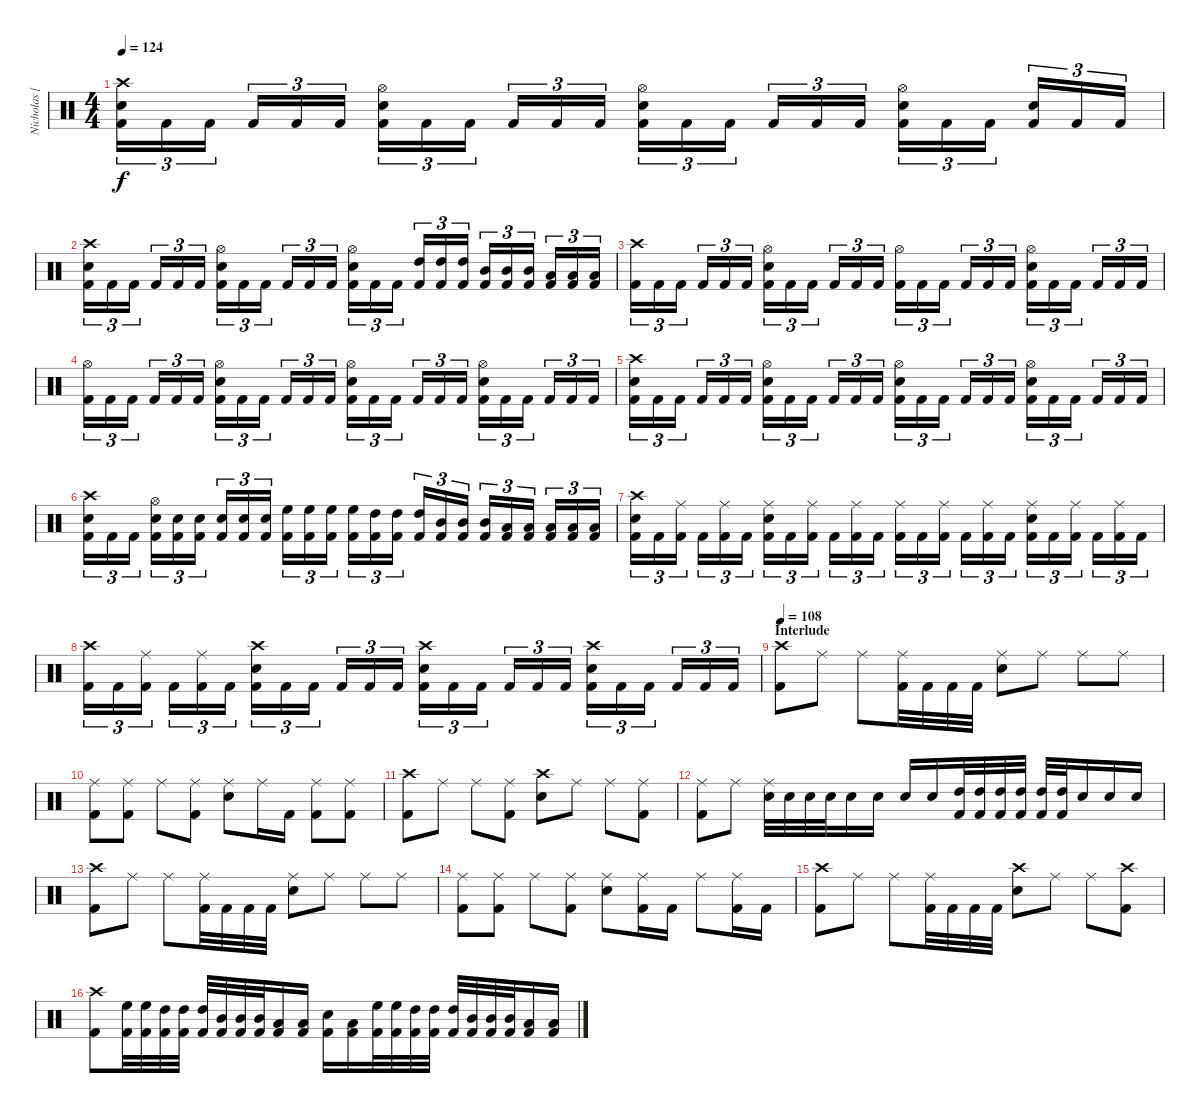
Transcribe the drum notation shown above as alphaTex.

\track ("Nicholas [Percussion]" "Nicholas [") {instrument percussion}
\staff {score}
\articulation defaults
\ts (4 4)
\tempo 124
\clef neutral
\ks c
("Kick (hit) 2" "Snare (hit) 2" "Crash high (hit)").16{tu (3 2) dy f} "Kick (hit) 2".16{tu (3 2)} "Kick (hit) 2".16{tu (3 2)} "Kick (hit) 2".16{tu (3 2)} "Kick (hit) 2".16{tu (3 2)} "Kick (hit) 2".16{tu (3 2)} ("Kick (hit) 2" "Snare (hit) 2" "Hi-Hat (open)").16{tu (3 2)} "Kick (hit) 2".16{tu (3 2)} "Kick (hit) 2".16{tu (3 2)} "Kick (hit) 2".16{tu (3 2)} "Kick (hit) 2".16{tu (3 2)} "Kick (hit) 2".16{tu (3 2)} ("Kick (hit) 2" "Snare (hit) 2" "Hi-Hat (open)").16{tu (3 2)} "Kick (hit) 2".16{tu (3 2)} "Kick (hit) 2".16{tu (3 2)} "Kick (hit) 2".16{tu (3 2)} "Kick (hit) 2".16{tu (3 2)} "Kick (hit) 2".16{tu (3 2)} ("Kick (hit) 2" "Snare (hit) 2" "Hi-Hat (open)").16{tu (3 2)} "Kick (hit) 2".16{tu (3 2)} "Kick (hit) 2".16{tu (3 2)} ("Kick (hit) 2" "Snare (hit) 2").16{tu (3 2)} "Kick (hit) 2".16{tu (3 2)} "Kick (hit) 2".16{tu (3 2)} |
("Kick (hit) 2" "Snare (hit) 2" "Crash high (hit)").16{tu (3 2)} "Kick (hit) 2".16{tu (3 2)} "Kick (hit) 2".16{tu (3 2)} "Kick (hit) 2".16{tu (3 2)} "Kick (hit) 2".16{tu (3 2)} "Kick (hit) 2".16{tu (3 2)} ("Kick (hit) 2" "Snare (hit) 2" "Hi-Hat (open)").16{tu (3 2)} "Kick (hit) 2".16{tu (3 2)} "Kick (hit) 2".16{tu (3 2)} "Kick (hit) 2".16{tu (3 2)} "Kick (hit) 2".16{tu (3 2)} "Kick (hit) 2".16{tu (3 2)} ("Kick (hit) 2" "Snare (hit) 2" "Hi-Hat (open)").16{tu (3 2)} "Kick (hit) 2".16{tu (3 2)} "Kick (hit) 2".16{tu (3 2)} ("Kick (hit) 2" "High Tom (hit)").16{tu (3 2)} ("Kick (hit) 2" "High Tom (hit)").16{tu (3 2)} ("Kick (hit) 2" "High Tom (hit)").16{tu (3 2)} ("Kick (hit) 2" "Mid Tom (hit)").16{tu (3 2)} ("Kick (hit) 2" "Mid Tom (hit)").16{tu (3 2)} ("Kick (hit) 2" "Mid Tom (hit)").16{tu (3 2)} ("Kick (hit) 2" "Low Tom (hit)").16{tu (3 2)} ("Kick (hit) 2" "Low Tom (hit)").16{tu (3 2)} ("Kick (hit) 2" "Low Tom (hit)").16{tu (3 2)} |
("Kick (hit) 2" "Crash high (hit)").16{tu (3 2)} "Kick (hit) 2".16{tu (3 2)} "Kick (hit) 2".16{tu (3 2)} "Kick (hit) 2".16{tu (3 2)} "Kick (hit) 2".16{tu (3 2)} "Kick (hit) 2".16{tu (3 2)} ("Kick (hit) 2" "Snare (hit) 2" "Hi-Hat (open)").16{tu (3 2)} "Kick (hit) 2".16{tu (3 2)} "Kick (hit) 2".16{tu (3 2)} "Kick (hit) 2".16{tu (3 2)} "Kick (hit) 2".16{tu (3 2)} "Kick (hit) 2".16{tu (3 2)} ("Kick (hit) 2" "Hi-Hat (open)").16{tu (3 2)} "Kick (hit) 2".16{tu (3 2)} "Kick (hit) 2".16{tu (3 2)} "Kick (hit) 2".16{tu (3 2)} "Kick (hit) 2".16{tu (3 2)} "Kick (hit) 2".16{tu (3 2)} ("Kick (hit) 2" "Snare (hit) 2" "Hi-Hat (open)").16{tu (3 2)} "Kick (hit) 2".16{tu (3 2)} "Kick (hit) 2".16{tu (3 2)} "Kick (hit) 2".16{tu (3 2)} "Kick (hit) 2".16{tu (3 2)} "Kick (hit) 2".16{tu (3 2)} |
("Kick (hit) 2" "Hi-Hat (open)").16{tu (3 2)} "Kick (hit) 2".16{tu (3 2)} "Kick (hit) 2".16{tu (3 2)} "Kick (hit) 2".16{tu (3 2)} "Kick (hit) 2".16{tu (3 2)} "Kick (hit) 2".16{tu (3 2)} ("Kick (hit) 2" "Snare (hit) 2" "Hi-Hat (open)").16{tu (3 2)} "Kick (hit) 2".16{tu (3 2)} "Kick (hit) 2".16{tu (3 2)} "Kick (hit) 2".16{tu (3 2)} "Kick (hit) 2".16{tu (3 2)} "Kick (hit) 2".16{tu (3 2)} ("Kick (hit) 2" "Snare (hit) 2" "Hi-Hat (open)").16{tu (3 2)} "Kick (hit) 2".16{tu (3 2)} "Kick (hit) 2".16{tu (3 2)} "Kick (hit) 2".16{tu (3 2)} "Kick (hit) 2".16{tu (3 2)} "Kick (hit) 2".16{tu (3 2)} ("Kick (hit) 2" "Snare (hit) 2" "Hi-Hat (open)").16{tu (3 2)} "Kick (hit) 2".16{tu (3 2)} "Kick (hit) 2".16{tu (3 2)} "Kick (hit) 2".16{tu (3 2)} "Kick (hit) 2".16{tu (3 2)} "Kick (hit) 2".16{tu (3 2)} |
("Kick (hit) 2" "Snare (hit) 2" "Crash high (hit)").16{tu (3 2)} "Kick (hit) 2".16{tu (3 2)} "Kick (hit) 2".16{tu (3 2)} "Kick (hit) 2".16{tu (3 2)} "Kick (hit) 2".16{tu (3 2)} "Kick (hit) 2".16{tu (3 2)} ("Kick (hit) 2" "Snare (hit) 2" "Hi-Hat (open)").16{tu (3 2)} "Kick (hit) 2".16{tu (3 2)} "Kick (hit) 2".16{tu (3 2)} "Kick (hit) 2".16{tu (3 2)} "Kick (hit) 2".16{tu (3 2)} "Kick (hit) 2".16{tu (3 2)} ("Kick (hit) 2" "Snare (hit) 2" "Hi-Hat (open)").16{tu (3 2)} "Kick (hit) 2".16{tu (3 2)} "Kick (hit) 2".16{tu (3 2)} "Kick (hit) 2".16{tu (3 2)} "Kick (hit) 2".16{tu (3 2)} "Kick (hit) 2".16{tu (3 2)} ("Kick (hit) 2" "Snare (hit) 2" "Hi-Hat (open)").16{tu (3 2)} "Kick (hit) 2".16{tu (3 2)} "Kick (hit) 2".16{tu (3 2)} "Kick (hit) 2".16{tu (3 2)} "Kick (hit) 2".16{tu (3 2)} "Kick (hit) 2".16{tu (3 2)} |
("Kick (hit) 2" "Snare (hit) 2" "Crash high (hit)").16{tu (3 2)} "Kick (hit) 2".16{tu (3 2)} "Kick (hit) 2".16{tu (3 2)} ("Kick (hit) 2" "Snare (hit) 2" "Hi-Hat (open)").16{tu (3 2)} ("Kick (hit) 2" "Snare (hit) 2").16{tu (3 2)} ("Kick (hit) 2" "Snare (hit) 2").16{tu (3 2)} ("Kick (hit) 2" "Snare (hit) 2").16{tu (3 2)} ("Kick (hit) 2" "Snare (hit) 2").16{tu (3 2)} ("Kick (hit) 2" "Snare (hit) 2").16{tu (3 2)} ("Kick (hit) 2" "High Floor Tom (hit)").16{tu (3 2)} ("Kick (hit) 2" "High Floor Tom (hit)").16{tu (3 2)} ("Kick (hit) 2" "High Floor Tom (hit)").16{tu (3 2)} ("Kick (hit) 2" "High Floor Tom (hit)").16{tu (3 2)} ("Kick (hit) 2" "High Tom (hit)").16{tu (3 2)} ("Kick (hit) 2" "High Tom (hit)").16{tu (3 2)} ("Kick (hit) 2" "High Tom (hit)").16{tu (3 2)} ("Kick (hit) 2" "Mid Tom (hit)").16{tu (3 2)} ("Kick (hit) 2" "Mid Tom (hit)").16{tu (3 2)} ("Kick (hit) 2" "Mid Tom (hit)").16{tu (3 2)} ("Kick (hit) 2" "Low Tom (hit)").16{tu (3 2)} ("Kick (hit) 2" "Low Tom (hit)").16{tu (3 2)} ("Kick (hit) 2" "Low Tom (hit)").16{tu (3 2)} ("Kick (hit) 2" "Low Tom (hit)").16{tu (3 2)} ("Kick (hit) 2" "Low Tom (hit)").16{tu (3 2)} |
("Kick (hit) 2" "Snare (hit) 2" "Crash high (hit)").16{tu (3 2)} "Kick (hit) 2".16{tu (3 2)} ("Kick (hit) 2" "Ride (middle)").16{tu (3 2)} "Kick (hit) 2".16{tu (3 2)} ("Kick (hit) 2" "Ride (middle)").16{tu (3 2)} "Kick (hit) 2".16{tu (3 2)} ("Kick (hit) 2" "Snare (hit) 2" "Ride (middle)").16{tu (3 2)} "Kick (hit) 2".16{tu (3 2)} ("Kick (hit) 2" "Ride (middle)").16{tu (3 2)} "Kick (hit) 2".16{tu (3 2)} ("Kick (hit) 2" "Ride (middle)").16{tu (3 2)} "Kick (hit) 2".16{tu (3 2)} ("Kick (hit) 2" "Ride (middle)").16{tu (3 2)} "Kick (hit) 2".16{tu (3 2)} ("Kick (hit) 2" "Ride (middle)").16{tu (3 2)} "Kick (hit) 2".16{tu (3 2)} ("Kick (hit) 2" "Ride (middle)").16{tu (3 2)} "Kick (hit) 2".16{tu (3 2)} ("Kick (hit) 2" "Snare (hit) 2" "Ride (middle)").16{tu (3 2)} "Kick (hit) 2".16{tu (3 2)} ("Kick (hit) 2" "Ride (middle)").16{tu (3 2)} "Kick (hit) 2".16{tu (3 2)} ("Kick (hit) 2" "Ride (middle)").16{tu (3 2)} "Kick (hit) 2".16{tu (3 2)} |
("Kick (hit) 2" "Crash high (hit)").16{tu (3 2)} "Kick (hit) 2".16{tu (3 2)} ("Kick (hit) 2" "Ride (middle)").16{tu (3 2)} "Kick (hit) 2".16{tu (3 2)} ("Kick (hit) 2" "Ride (middle)").16{tu (3 2)} "Kick (hit) 2".16{tu (3 2)} ("Kick (hit) 2" "Snare (hit) 2" "Crash high (hit)").16{tu (3 2)} "Kick (hit) 2".16{tu (3 2)} "Kick (hit) 2".16{tu (3 2)} "Kick (hit) 2".16{tu (3 2)} "Kick (hit) 2".16{tu (3 2)} "Kick (hit) 2".16{tu (3 2)} ("Kick (hit) 2" "Snare (hit) 2" "Crash high (hit)").16{tu (3 2)} "Kick (hit) 2".16{tu (3 2)} "Kick (hit) 2".16{tu (3 2)} "Kick (hit) 2".16{tu (3 2)} "Kick (hit) 2".16{tu (3 2)} "Kick (hit) 2".16{tu (3 2)} ("Kick (hit) 2" "Snare (hit) 2" "Crash high (hit)").16{tu (3 2)} "Kick (hit) 2".16{tu (3 2)} "Kick (hit) 2".16{tu (3 2)} "Kick (hit) 2".16{tu (3 2)} "Kick (hit) 2".16{tu (3 2)} "Kick (hit) 2".16{tu (3 2)} |
\section ("" "Interlude")
\tempo 108
("Kick (hit) 2" "Crash high (hit)").8 "Ride (middle)".8 "Ride (middle)".8 ("Kick (hit) 2" "Ride (middle)").32 "Kick (hit) 2".32 "Kick (hit) 2".32 "Kick (hit) 2".32 ("Snare (hit) 2" "Ride (middle)").8 "Ride (middle)".8 "Ride (middle)".8 "Ride (middle)".8 |
("Kick (hit) 2" "Ride (middle)").8 ("Kick (hit) 2" "Ride (middle)").8 "Ride (middle)".8 ("Kick (hit) 2" "Ride (middle)").8 ("Snare (hit) 2" "Ride (middle)").8 "Ride (middle)".16 "Kick (hit) 2".16 ("Kick (hit) 2" "Ride (middle)").8 ("Kick (hit) 2" "Ride (middle)").8 |
("Kick (hit) 2" "Crash high (hit)").8 "Ride (middle)".8 "Ride (middle)".8 ("Kick (hit) 2" "Ride (middle)").8 ("Snare (hit) 2" "Crash high (hit)").8 "Ride (middle)".8 "Ride (middle)".8 ("Kick (hit) 2" "Ride (middle)").8 |
("Kick (hit) 2" "Ride (middle)").8 "Ride (middle)".8 ("Snare (hit) 2" "Ride (middle)").32 "Snare (hit) 2".32 "Snare (hit) 2".32 "Snare (hit) 2".32 "Snare (hit) 2".16 "Snare (hit) 2".16 "Snare (hit) 2".16 "Snare (hit) 2".16 ("Kick (hit) 2" "High Tom (hit)").32 ("Kick (hit) 2" "High Tom (hit)").32 ("Kick (hit) 2" "High Tom (hit)").32 ("Kick (hit) 2" "High Tom (hit)").32 ("Kick (hit) 2" "High Tom (hit)").32 ("Kick (hit) 2" "High Tom (hit)").32 "Snare (hit) 2".16 "Snare (hit) 2".16 "Snare (hit) 2".16 |
("Kick (hit) 2" "Crash high (hit)").8 "Ride (middle)".8 "Ride (middle)".8 ("Kick (hit) 2" "Ride (middle)").32 "Kick (hit) 2".32 "Kick (hit) 2".32 "Kick (hit) 2".32 ("Snare (hit) 2" "Ride (middle)").8 "Ride (middle)".8 "Ride (middle)".8 "Ride (middle)".8 |
("Kick (hit) 2" "Ride (middle)").8 ("Kick (hit) 2" "Ride (middle)").8 "Ride (middle)".8 ("Kick (hit) 2" "Ride (middle)").8 ("Snare (hit) 2" "Ride (middle)").8 ("Kick (hit) 2" "Ride (middle)").16 "Kick (hit) 2".16 "Ride (middle)".8 ("Kick (hit) 2" "Ride (middle)").16 "Kick (hit) 2".16 |
("Kick (hit) 2" "Crash high (hit)").8 "Ride (middle)".8 "Ride (middle)".8 ("Kick (hit) 2" "Ride (middle)").32 "Kick (hit) 2".32 "Kick (hit) 2".32 "Kick (hit) 2".32 ("Snare (hit) 2" "Crash high (hit)").8 "Ride (middle)".8 "Ride (middle)".8 ("Kick (hit) 2" "Crash high (hit)").8 |
("Kick (hit) 2" "Crash high (hit)").8 ("Kick (hit) 2" "High Floor Tom (hit)").32 ("Kick (hit) 2" "High Floor Tom (hit)").32 ("Kick (hit) 2" "High Tom (hit)").32 ("Kick (hit) 2" "High Tom (hit)").32 ("Kick (hit) 2" "High Tom (hit)").32 ("Kick (hit) 2" "Mid Tom (hit)").32 ("Kick (hit) 2" "Mid Tom (hit)").32 ("Kick (hit) 2" "Mid Tom (hit)").32 ("Kick (hit) 2" "Low Tom (hit)").16 ("Kick (hit) 2" "Low Tom (hit)").16 ("Kick (hit) 2" "Snare (hit) 2").16 ("Kick (hit) 2" "Low Tom (hit)").16 ("Kick (hit) 2" "High Floor Tom (hit)").32 ("Kick (hit) 2" "High Floor Tom (hit)").32 ("Kick (hit) 2" "High Tom (hit)").32 ("Kick (hit) 2" "High Tom (hit)").32 ("Kick (hit) 2" "High Tom (hit)").32 ("Kick (hit) 2" "Mid Tom (hit)").32 ("Kick (hit) 2" "Mid Tom (hit)").32 ("Kick (hit) 2" "Mid Tom (hit)").32 ("Kick (hit) 2" "Low Tom (hit)").16 ("Kick (hit) 2" "Low Tom (hit)").16
